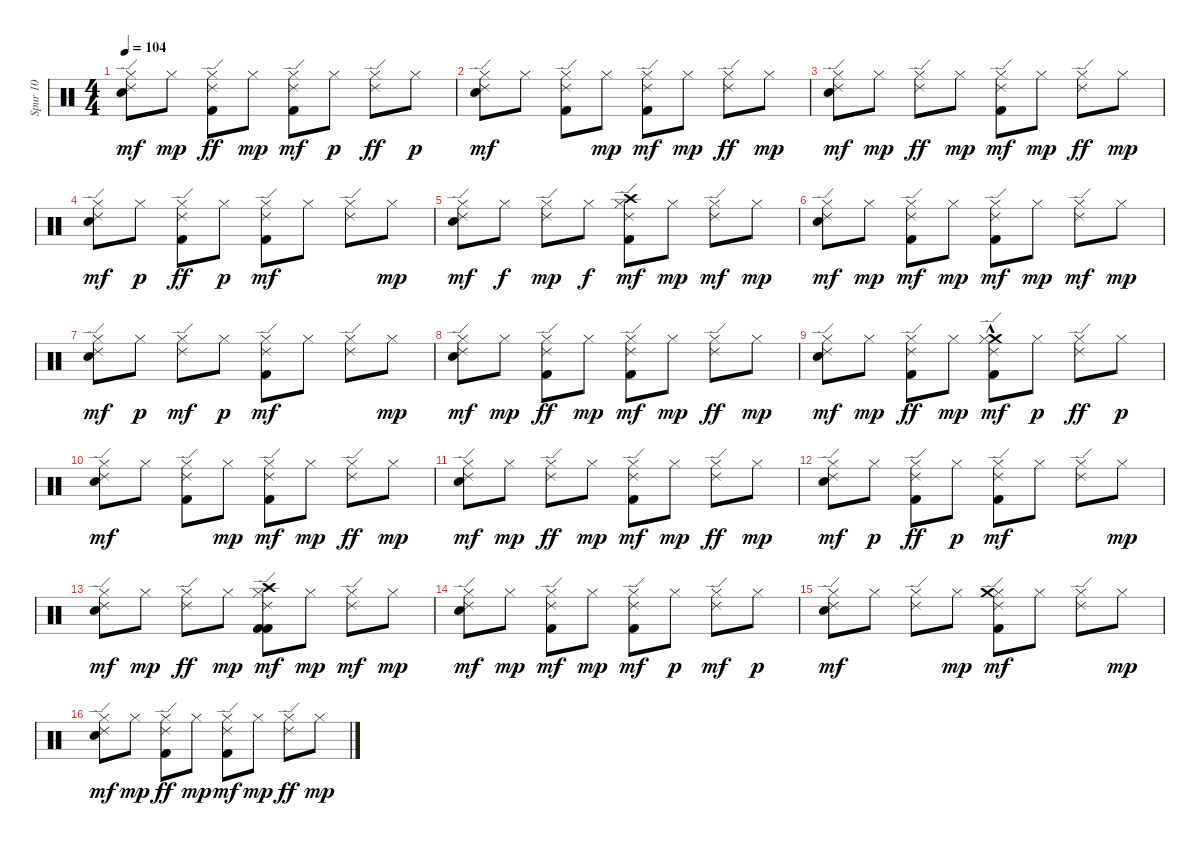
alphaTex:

\track ("Spur 10" "Spur 10") {instrument percussion}
\staff {score}
\articulation defaults
\ts (4 4)
\tempo 104
\clef neutral
\ks c
("Snare (hit) 2" "Ride (edge) 2" "Hi-Hat (closed)").8{dy mf} "Hi-Hat (closed)".8{dy mp} ("Kick (hit) 2" "Ride (edge) 2" "Hi-Hat (closed)").8{dy ff} "Hi-Hat (closed)".8{dy mp} ("Kick (hit) 2" "Ride (edge) 2" "Hi-Hat (closed)").8{dy mf} "Hi-Hat (closed)".8{dy p} ("Ride (edge) 2" "Hi-Hat (closed)").8{dy ff} "Hi-Hat (closed)".8{dy p} |
("Snare (hit) 2" "Ride (edge) 2" "Hi-Hat (closed)").8{dy mf} "Hi-Hat (closed)".8 ("Kick (hit) 2" "Ride (edge) 2" "Hi-Hat (closed)").8 "Hi-Hat (closed)".8{dy mp} ("Kick (hit) 2" "Ride (edge) 2" "Hi-Hat (closed)").8{dy mf} "Hi-Hat (closed)".8{dy mp} ("Ride (edge) 2" "Hi-Hat (closed)").8{dy ff} "Hi-Hat (closed)".8{dy mp} |
("Snare (hit) 2" "Ride (edge) 2" "Hi-Hat (closed)").8{dy mf} "Hi-Hat (closed)".8{dy mp} ("Ride (edge) 2" "Hi-Hat (closed)").8{dy ff} "Hi-Hat (closed)".8{dy mp} ("Kick (hit) 2" "Ride (edge) 2" "Hi-Hat (closed)").8{dy mf} "Hi-Hat (closed)".8{dy mp} ("Ride (edge) 2" "Hi-Hat (closed)").8{dy ff} "Hi-Hat (closed)".8{dy mp} |
("Snare (hit) 2" "Ride (edge) 2" "Hi-Hat (closed)").8{dy mf} "Hi-Hat (closed)".8{dy p} ("Kick (hit) 2" "Ride (edge) 2" "Hi-Hat (closed)").8{dy ff} "Hi-Hat (closed)".8{dy p} ("Kick (hit) 2" "Ride (edge) 2" "Hi-Hat (closed)").8{dy mf} "Hi-Hat (closed)".8 ("Ride (edge) 2" "Hi-Hat (closed)").8 "Hi-Hat (closed)".8{dy mp} |
("Snare (hit) 2" "Ride (edge) 2" "Hi-Hat (closed)").8{dy mf} "Hi-Hat (closed)".8{dy f} ("Ride (edge) 2" "Hi-Hat (closed)").8{dy mp} "Hi-Hat (closed)".8{dy f} ("Hi-Hat (closed)" "Kick (hit) 2" "Ride (edge) 2" "Crash high (hit)").8{dy mf} "Hi-Hat (closed)".8{dy mp} ("Hi-Hat (closed)" "Ride (edge) 2").8{dy mf} "Hi-Hat (closed)".8{dy mp} |
("Hi-Hat (closed)" "Snare (hit) 2" "Ride (edge) 2").8{dy mf} "Hi-Hat (closed)".8{dy mp} ("Hi-Hat (closed)" "Kick (hit) 2" "Ride (edge) 2").8{dy mf} "Hi-Hat (closed)".8{dy mp} ("Hi-Hat (closed)" "Kick (hit) 2" "Ride (edge) 2").8{dy mf} "Hi-Hat (closed)".8{dy mp} ("Hi-Hat (closed)" "Ride (edge) 2").8{dy mf} "Hi-Hat (closed)".8{dy mp} |
("Hi-Hat (closed)" "Snare (hit) 2" "Ride (edge) 2").8{dy mf} "Hi-Hat (closed)".8{dy p} ("Hi-Hat (closed)" "Ride (edge) 2").8{dy mf} "Hi-Hat (closed)".8{dy p} ("Hi-Hat (closed)" "Kick (hit) 2" "Ride (edge) 2").8{dy mf} "Hi-Hat (closed)".8 ("Hi-Hat (closed)" "Ride (edge) 2").8 "Hi-Hat (closed)".8{dy mp} |
("Snare (hit) 2" "Ride (edge) 2" "Hi-Hat (closed)").8{dy mf} "Hi-Hat (closed)".8{dy mp} ("Kick (hit) 2" "Ride (edge) 2" "Hi-Hat (closed)").8{dy ff} "Hi-Hat (closed)".8{dy mp} ("Kick (hit) 2" "Ride (edge) 2" "Hi-Hat (closed)").8{dy mf} "Hi-Hat (closed)".8{dy mp} ("Ride (edge) 2" "Hi-Hat (closed)").8{dy ff} "Hi-Hat (closed)".8{dy mp} |
("Snare (hit) 2" "Ride (edge) 2" "Hi-Hat (closed)").8{dy mf} "Hi-Hat (closed)".8{dy mp} ("Kick (hit) 2" "Ride (edge) 2" "Hi-Hat (closed)").8{dy ff} "Hi-Hat (closed)".8{dy mp} ("Crash medium (hit)"{hac} "Kick (hit) 2" "Ride (edge) 2" "Hi-Hat (closed)").8{dy mf} "Hi-Hat (closed)".8{dy p} ("Ride (edge) 2" "Hi-Hat (closed)").8{dy ff} "Hi-Hat (closed)".8{dy p} |
("Snare (hit) 2" "Ride (edge) 2" "Hi-Hat (closed)").8{dy mf} "Hi-Hat (closed)".8 ("Kick (hit) 2" "Ride (edge) 2" "Hi-Hat (closed)").8 "Hi-Hat (closed)".8{dy mp} ("Kick (hit) 2" "Ride (edge) 2" "Hi-Hat (closed)").8{dy mf} "Hi-Hat (closed)".8{dy mp} ("Ride (edge) 2" "Hi-Hat (closed)").8{dy ff} "Hi-Hat (closed)".8{dy mp} |
("Snare (hit) 2" "Ride (edge) 2" "Hi-Hat (closed)").8{dy mf} "Hi-Hat (closed)".8{dy mp} ("Ride (edge) 2" "Hi-Hat (closed)").8{dy ff} "Hi-Hat (closed)".8{dy mp} ("Kick (hit) 2" "Ride (edge) 2" "Hi-Hat (closed)").8{dy mf} "Hi-Hat (closed)".8{dy mp} ("Ride (edge) 2" "Hi-Hat (closed)").8{dy ff} "Hi-Hat (closed)".8{dy mp} |
("Snare (hit) 2" "Ride (edge) 2" "Hi-Hat (closed)").8{dy mf} "Hi-Hat (closed)".8{dy p} ("Kick (hit) 2" "Ride (edge) 2" "Hi-Hat (closed)").8{dy ff} "Hi-Hat (closed)".8{dy p} ("Kick (hit) 2" "Ride (edge) 2" "Hi-Hat (closed)").8{dy mf} "Hi-Hat (closed)".8 ("Ride (edge) 2" "Hi-Hat (closed)").8 "Hi-Hat (closed)".8{dy mp} |
("Snare (hit) 2" "Ride (edge) 2" "Hi-Hat (closed)").8{dy mf} "Hi-Hat (closed)".8{dy mp} ("Ride (edge) 2" "Hi-Hat (closed)").8{dy ff} "Hi-Hat (closed)".8{dy mp} ("Kick (hit) 2" "Hi-Hat (closed)" "Kick (hit) 2" "Ride (edge) 2" "Crash high (hit)").8{dy mf} "Hi-Hat (closed)".8{dy mp} ("Hi-Hat (closed)" "Ride (edge) 2").8{dy mf} "Hi-Hat (closed)".8{dy mp} |
("Hi-Hat (closed)" "Snare (hit) 2" "Ride (edge) 2").8{dy mf} "Hi-Hat (closed)".8{dy mp} ("Hi-Hat (closed)" "Kick (hit) 2" "Ride (edge) 2").8{dy mf} "Hi-Hat (closed)".8{dy mp} ("Hi-Hat (closed)" "Kick (hit) 2" "Ride (edge) 2").8{dy mf} "Hi-Hat (closed)".8{dy p} ("Hi-Hat (closed)" "Ride (edge) 2").8{dy mf} "Hi-Hat (closed)".8{dy p} |
("Hi-Hat (closed)" "Snare (hit) 2" "Ride (edge) 2").8{dy mf} "Hi-Hat (closed)".8 ("Hi-Hat (closed)" "Ride (edge) 2").8 "Hi-Hat (closed)".8{dy mp} ("Kick (hit) 2" "Ride (edge) 2" "Hi-Hat (closed)" "Crash medium (hit)").8{dy mf} "Hi-Hat (closed)".8 ("Ride (edge) 2" "Hi-Hat (closed)").8 "Hi-Hat (closed)".8{dy mp} |
("Snare (hit) 2" "Ride (edge) 2" "Hi-Hat (closed)").8{dy mf} "Hi-Hat (closed)".8{dy mp} ("Kick (hit) 2" "Ride (edge) 2" "Hi-Hat (closed)").8{dy ff} "Hi-Hat (closed)".8{dy mp} ("Kick (hit) 2" "Ride (edge) 2" "Hi-Hat (closed)").8{dy mf} "Hi-Hat (closed)".8{dy mp} ("Ride (edge) 2" "Hi-Hat (closed)").8{dy ff} "Hi-Hat (closed)".8{dy mp}
